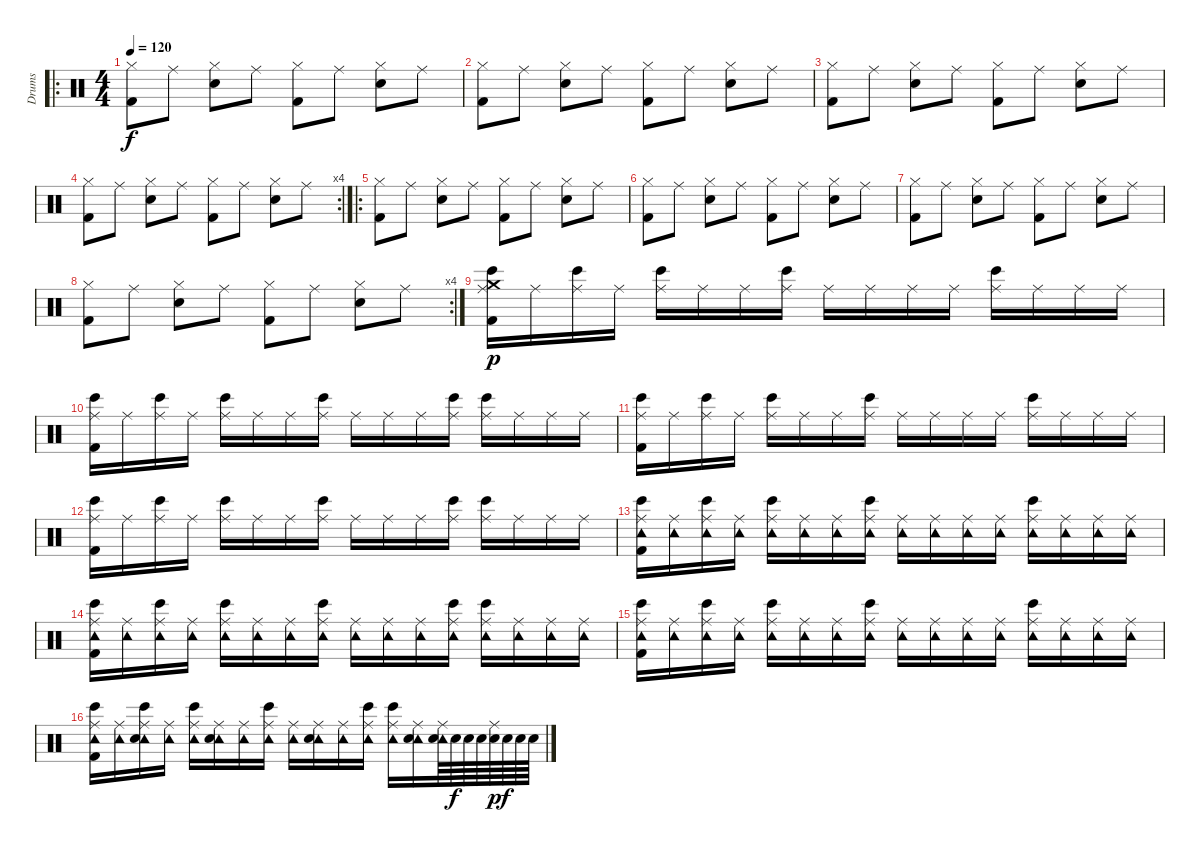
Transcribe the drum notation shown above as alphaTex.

\track ("Drums" "Drums") {instrument percussion}
\staff {score}
\articulation defaults
\ro
\ts (4 4)
\tempo 120
\clef neutral
\ks c
("Hi-Hat (closed)" "Kick (hit) 2").8{dy f} "Ride (middle)".8 ("Hi-Hat (closed)" "Electric Snare (hit)").8 "Ride (middle)".8 ("Hi-Hat (closed)" "Kick (hit) 2").8 "Ride (middle)".8 ("Hi-Hat (closed)" "Electric Snare (hit)").8 "Ride (middle)".8 |
("Hi-Hat (closed)" "Kick (hit) 2").8 "Ride (middle)".8 ("Hi-Hat (closed)" "Electric Snare (hit)").8 "Ride (middle)".8 ("Hi-Hat (closed)" "Kick (hit) 2").8 "Ride (middle)".8 ("Hi-Hat (closed)" "Electric Snare (hit)").8 "Ride (middle)".8 |
("Hi-Hat (closed)" "Kick (hit) 2").8 "Ride (middle)".8 ("Hi-Hat (closed)" "Electric Snare (hit)").8 "Ride (middle)".8 ("Hi-Hat (closed)" "Kick (hit) 2").8 "Ride (middle)".8 ("Hi-Hat (closed)" "Electric Snare (hit)").8 "Ride (middle)".8 |
\rc 4
("Hi-Hat (closed)" "Kick (hit) 2").8 "Ride (middle)".8 ("Hi-Hat (closed)" "Electric Snare (hit)").8 "Ride (middle)".8 ("Hi-Hat (closed)" "Kick (hit) 2").8 "Ride (middle)".8 ("Hi-Hat (closed)" "Electric Snare (hit)").8 "Ride (middle)".8 |
\ro
("Hi-Hat (closed)" "Kick (hit) 2").8 "Ride (middle)".8 ("Hi-Hat (closed)" "Electric Snare (hit)").8 "Ride (middle)".8 ("Hi-Hat (closed)" "Kick (hit) 2").8 "Ride (middle)".8 ("Hi-Hat (closed)" "Electric Snare (hit)").8 "Ride (middle)".8 |
("Hi-Hat (closed)" "Kick (hit) 2").8 "Ride (middle)".8 ("Hi-Hat (closed)" "Electric Snare (hit)").8 "Ride (middle)".8 ("Hi-Hat (closed)" "Kick (hit) 2").8 "Ride (middle)".8 ("Hi-Hat (closed)" "Electric Snare (hit)").8 "Ride (middle)".8 |
("Hi-Hat (closed)" "Kick (hit) 2").8 "Ride (middle)".8 ("Hi-Hat (closed)" "Electric Snare (hit)").8 "Ride (middle)".8 ("Hi-Hat (closed)" "Kick (hit) 2").8 "Ride (middle)".8 ("Hi-Hat (closed)" "Electric Snare (hit)").8 "Ride (middle)".8 |
\rc 4
("Hi-Hat (closed)" "Kick (hit) 2").8 "Ride (middle)".8 ("Hi-Hat (closed)" "Electric Snare (hit)").8 "Ride (middle)".8 ("Hi-Hat (closed)" "Kick (hit) 2").8 "Ride (middle)".8 ("Hi-Hat (closed)" "Electric Snare (hit)").8 "Ride (middle)".8 |
("Ride (middle)" "Bongo High (hit)" "Crash medium (hit)" "Kick (hit) 2").16{dy p} "Ride (middle)".16 ("Ride (middle)" "Bongo High (hit)").16 "Ride (middle)".16 ("Ride (middle)" "Bongo High (hit)").16 "Ride (middle)".16 "Ride (middle)".16 ("Ride (middle)" "Bongo High (hit)").16 "Ride (middle)".16 "Ride (middle)".16 "Ride (middle)".16 "Ride (middle)".16 ("Ride (middle)" "Bongo High (hit)").16 "Ride (middle)".16 "Ride (middle)".16 "Ride (middle)".16 |
("Ride (middle)" "Bongo High (hit)" "Kick (hit) 2").16 "Ride (middle)".16 ("Ride (middle)" "Bongo High (hit)").16 "Ride (middle)".16 ("Ride (middle)" "Bongo High (hit)").16 "Ride (middle)".16 "Ride (middle)".16 ("Ride (middle)" "Bongo High (hit)").16 "Ride (middle)".16 "Ride (middle)".16 "Ride (middle)".16 ("Ride (middle)" "Bongo High (hit)").16 ("Ride (middle)" "Bongo High (hit)").16 "Ride (middle)".16 "Ride (middle)".16 "Ride (middle)".16 |
("Ride (middle)" "Bongo High (hit)" "Kick (hit) 2").16 "Ride (middle)".16 ("Ride (middle)" "Bongo High (hit)").16 "Ride (middle)".16 ("Ride (middle)" "Bongo High (hit)").16 "Ride (middle)".16 "Ride (middle)".16 ("Ride (middle)" "Bongo High (hit)").16 "Ride (middle)".16 "Ride (middle)".16 "Ride (middle)".16 "Ride (middle)".16 ("Ride (middle)" "Bongo High (hit)").16 "Ride (middle)".16 "Ride (middle)".16 "Ride (middle)".16 |
("Ride (middle)" "Bongo High (hit)" "Kick (hit) 2").16 "Ride (middle)".16 ("Ride (middle)" "Bongo High (hit)").16 "Ride (middle)".16 ("Ride (middle)" "Bongo High (hit)").16 "Ride (middle)".16 "Ride (middle)".16 ("Ride (middle)" "Bongo High (hit)").16 "Ride (middle)".16 "Ride (middle)".16 "Ride (middle)".16 ("Ride (middle)" "Bongo High (hit)").16 ("Ride (middle)" "Bongo High (hit)").16 "Ride (middle)".16 "Ride (middle)".16 "Ride (middle)".16 |
("Ride (middle)" "Bongo High (hit)" "Tambourine (hit)" "Kick (hit) 2").16 ("Ride (middle)" "Tambourine (hit)").16 ("Ride (middle)" "Bongo High (hit)" "Tambourine (hit)").16 ("Ride (middle)" "Tambourine (hit)").16 ("Ride (middle)" "Bongo High (hit)" "Tambourine (hit)").16 ("Ride (middle)" "Tambourine (hit)").16 ("Ride (middle)" "Tambourine (hit)").16 ("Ride (middle)" "Bongo High (hit)" "Tambourine (hit)").16 ("Ride (middle)" "Tambourine (hit)").16 ("Ride (middle)" "Tambourine (hit)").16 ("Ride (middle)" "Tambourine (hit)").16 ("Ride (middle)" "Tambourine (hit)").16 ("Ride (middle)" "Bongo High (hit)" "Tambourine (hit)").16 ("Ride (middle)" "Tambourine (hit)").16 ("Ride (middle)" "Tambourine (hit)").16 ("Ride (middle)" "Tambourine (hit)").16 |
("Ride (middle)" "Bongo High (hit)" "Tambourine (hit)" "Kick (hit) 2").16 ("Ride (middle)" "Tambourine (hit)").16 ("Ride (middle)" "Bongo High (hit)" "Tambourine (hit)").16 ("Ride (middle)" "Tambourine (hit)").16 ("Ride (middle)" "Bongo High (hit)" "Tambourine (hit)").16 ("Ride (middle)" "Tambourine (hit)").16 ("Ride (middle)" "Tambourine (hit)").16 ("Ride (middle)" "Bongo High (hit)" "Tambourine (hit)").16 ("Ride (middle)" "Tambourine (hit)").16 ("Ride (middle)" "Tambourine (hit)").16 ("Ride (middle)" "Tambourine (hit)").16 ("Ride (middle)" "Bongo High (hit)" "Tambourine (hit)").16 ("Ride (middle)" "Bongo High (hit)" "Tambourine (hit)").16 ("Ride (middle)" "Tambourine (hit)").16 ("Ride (middle)" "Tambourine (hit)").16 ("Ride (middle)" "Tambourine (hit)").16 |
("Ride (middle)" "Bongo High (hit)" "Tambourine (hit)" "Kick (hit) 2").16 ("Ride (middle)" "Tambourine (hit)").16 ("Ride (middle)" "Bongo High (hit)" "Tambourine (hit)").16 ("Ride (middle)" "Tambourine (hit)").16 ("Ride (middle)" "Bongo High (hit)" "Tambourine (hit)").16 ("Ride (middle)" "Tambourine (hit)").16 ("Ride (middle)" "Tambourine (hit)").16 ("Ride (middle)" "Bongo High (hit)" "Tambourine (hit)").16 ("Ride (middle)" "Tambourine (hit)").16 ("Ride (middle)" "Tambourine (hit)").16 ("Ride (middle)" "Tambourine (hit)").16 ("Ride (middle)" "Tambourine (hit)").16 ("Ride (middle)" "Bongo High (hit)" "Tambourine (hit)").16 ("Ride (middle)" "Tambourine (hit)").16 ("Ride (middle)" "Tambourine (hit)").16 ("Ride (middle)" "Tambourine (hit)").16 |
("Ride (middle)" "Bongo High (hit)" "Tambourine (hit)" "Kick (hit) 2").16 ("Ride (middle)" "Tambourine (hit)").16 ("Ride (middle)" "Bongo High (hit)" "Tambourine (hit)" "Electric Snare (hit)").16 ("Ride (middle)" "Tambourine (hit)").16 ("Ride (middle)" "Bongo High (hit)" "Tambourine (hit)").16 ("Ride (middle)" "Tambourine (hit)" "Electric Snare (hit)").16 ("Ride (middle)" "Tambourine (hit)").16 ("Ride (middle)" "Bongo High (hit)" "Tambourine (hit)").16 ("Ride (middle)" "Tambourine (hit)").16 ("Ride (middle)" "Tambourine (hit)" "Electric Snare (hit)").16 ("Ride (middle)" "Tambourine (hit)").16 ("Ride (middle)" "Bongo High (hit)" "Tambourine (hit)").16 ("Ride (middle)" "Bongo High (hit)" "Tambourine (hit)").16 ("Ride (middle)" "Tambourine (hit)" "Electric Snare (hit)").16 ("Ride (middle)" "Tambourine (hit)" "Electric Snare (hit)").64 "Electric Snare (hit)".64{dy f} "Electric Snare (hit)".64 "Electric Snare (hit)".64 ("Ride (middle)" "Snare (hit) 2").64{dy p} "Snare (hit) 2".64{dy f} "Snare (hit) 2".64 "Snare (hit) 2".64
